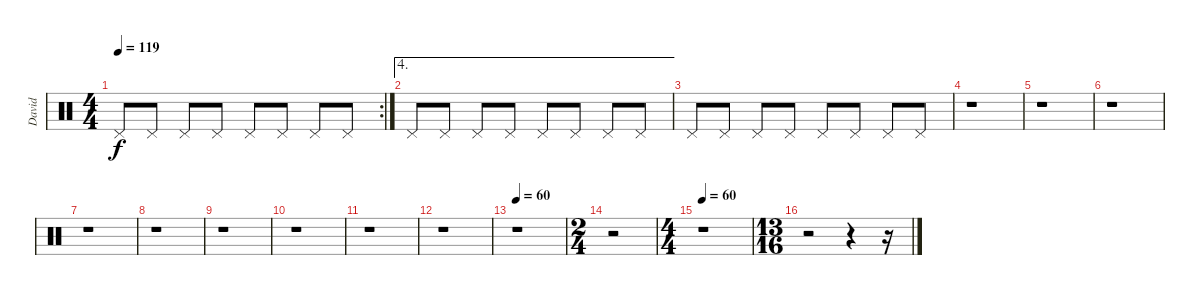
\track ("David" "David") {instrument percussion}
\staff {score}
\articulation defaults
\rc 2
\ts (4 4)
\tempo 119
\clef neutral
\ks c "Pedal Hi-Hat (hit)".8{dy f} "Pedal Hi-Hat (hit)".8 "Pedal Hi-Hat (hit)".8 "Pedal Hi-Hat (hit)".8 "Pedal Hi-Hat (hit)".8 "Pedal Hi-Hat (hit)".8 "Pedal Hi-Hat (hit)".8 "Pedal Hi-Hat (hit)".8
|
\ae 4 "Pedal Hi-Hat (hit)".8 "Pedal Hi-Hat (hit)".8 "Pedal Hi-Hat (hit)".8 "Pedal Hi-Hat (hit)".8 "Pedal Hi-Hat (hit)".8 "Pedal Hi-Hat (hit)".8 "Pedal Hi-Hat (hit)".8 "Pedal Hi-Hat (hit)".8
|
"Pedal Hi-Hat (hit)".8 "Pedal Hi-Hat (hit)".8 "Pedal Hi-Hat (hit)".8 "Pedal Hi-Hat (hit)".8 "Pedal Hi-Hat (hit)".8 "Pedal Hi-Hat (hit)".8 "Pedal Hi-Hat (hit)".8 "Pedal Hi-Hat (hit)".8 |
r.1 |
r.1 |
r.1 |
r.1 |
r.1 |
r.1 |
r.1 |
r.1 |
r.1 |
\tempo 60
r.1 |
\ts (2 4)
r.2 |
\ts (4 4)
\tempo 60
r.1 |
\ts (13 16)
r.2 r.4 r.16
